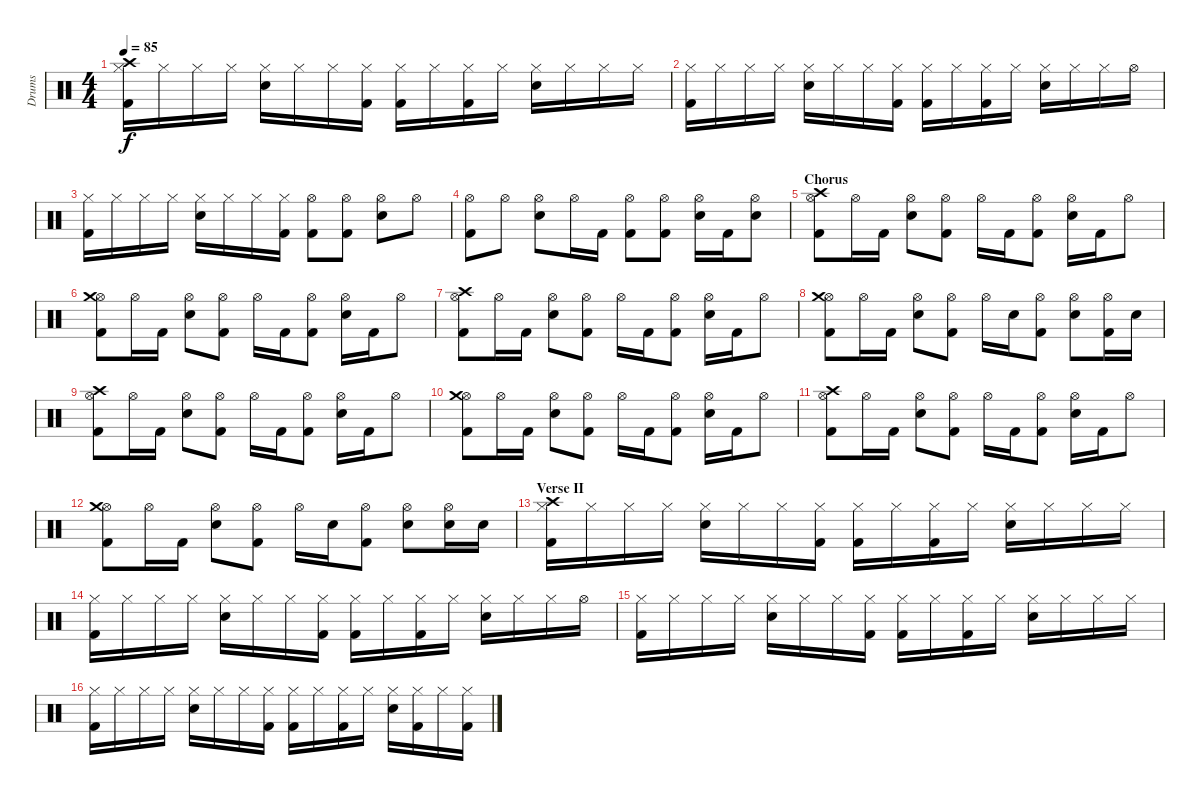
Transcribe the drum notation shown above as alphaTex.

\track ("Drums" "Drums") {instrument percussion}
\staff {score}
\articulation defaults
\ts (4 4)
\tempo 85
\clef neutral
\ks c
("Hi-Hat (closed)" "Kick (hit) 2" "Crash high (hit)").16{dy f} "Hi-Hat (closed)".16 "Hi-Hat (closed)".16 "Hi-Hat (closed)".16 ("Hi-Hat (closed)" "Electric Snare (hit)").16 "Hi-Hat (closed)".16 "Hi-Hat (closed)".16 ("Hi-Hat (closed)" "Kick (hit) 2").16 ("Hi-Hat (closed)" "Kick (hit) 2").16 "Hi-Hat (closed)".16 ("Hi-Hat (closed)" "Kick (hit) 2").16 "Hi-Hat (closed)".16 ("Hi-Hat (closed)" "Electric Snare (hit)").16 "Hi-Hat (closed)".16 "Hi-Hat (closed)".16 "Hi-Hat (closed)".16 |
("Hi-Hat (closed)" "Kick (hit) 2").16 "Hi-Hat (closed)".16 "Hi-Hat (closed)".16 "Hi-Hat (closed)".16 ("Hi-Hat (closed)" "Electric Snare (hit)").16 "Hi-Hat (closed)".16 "Hi-Hat (closed)".16 ("Hi-Hat (closed)" "Kick (hit) 2").16 ("Hi-Hat (closed)" "Kick (hit) 2").16 "Hi-Hat (closed)".16 ("Hi-Hat (closed)" "Kick (hit) 2").16 "Hi-Hat (closed)".16 ("Hi-Hat (closed)" "Electric Snare (hit)").16 "Hi-Hat (closed)".16 "Hi-Hat (closed)".16 "Hi-Hat (open)".16 |
("Hi-Hat (closed)" "Kick (hit) 2").16 "Hi-Hat (closed)".16 "Hi-Hat (closed)".16 "Hi-Hat (closed)".16 ("Hi-Hat (closed)" "Electric Snare (hit)").16 "Hi-Hat (closed)".16 "Hi-Hat (closed)".16 ("Hi-Hat (closed)" "Kick (hit) 2").16 ("Hi-Hat (open)" "Kick (hit) 2").8 ("Hi-Hat (open)" "Kick (hit) 2").8 ("Hi-Hat (open)" "Electric Snare (hit)").8 "Hi-Hat (open)".8 |
("Hi-Hat (open)" "Kick (hit) 2").8 "Hi-Hat (open)".8 ("Hi-Hat (open)" "Electric Snare (hit)").8 "Hi-Hat (open)".16 "Kick (hit) 2".16 ("Hi-Hat (open)" "Kick (hit) 2").8 ("Hi-Hat (open)" "Kick (hit) 2").8 ("Hi-Hat (open)" "Electric Snare (hit)").16 "Kick (hit) 2".16 ("Hi-Hat (open)" "Electric Snare (hit)").8 |
\section ("" "Chorus")
("Hi-Hat (open)" "Kick (hit) 2" "Crash high (hit)").8 "Hi-Hat (open)".16 "Kick (hit) 2".16 ("Hi-Hat (open)" "Electric Snare (hit)").8 ("Hi-Hat (open)" "Kick (hit) 2").8 "Hi-Hat (open)".16 "Kick (hit) 2".16 ("Hi-Hat (open)" "Kick (hit) 2").8 ("Hi-Hat (open)" "Electric Snare (hit)").16 "Kick (hit) 2".16 "Hi-Hat (open)".8 |
("Hi-Hat (open)" "Kick (hit) 2" "Crash medium (hit)").8 "Hi-Hat (open)".16 "Kick (hit) 2".16 ("Hi-Hat (open)" "Electric Snare (hit)").8 ("Hi-Hat (open)" "Kick (hit) 2").8 "Hi-Hat (open)".16 "Kick (hit) 2".16 ("Hi-Hat (open)" "Kick (hit) 2").8 ("Hi-Hat (open)" "Electric Snare (hit)").16 "Kick (hit) 2".16 "Hi-Hat (open)".8 |
("Hi-Hat (open)" "Kick (hit) 2" "Crash high (hit)").8 "Hi-Hat (open)".16 "Kick (hit) 2".16 ("Hi-Hat (open)" "Electric Snare (hit)").8 ("Hi-Hat (open)" "Kick (hit) 2").8 "Hi-Hat (open)".16 "Kick (hit) 2".16 ("Hi-Hat (open)" "Kick (hit) 2").8 ("Hi-Hat (open)" "Electric Snare (hit)").16 "Kick (hit) 2".16 "Hi-Hat (open)".8 |
("Hi-Hat (open)" "Kick (hit) 2" "Crash medium (hit)").8 "Hi-Hat (open)".16 "Kick (hit) 2".16 ("Hi-Hat (open)" "Electric Snare (hit)").8 ("Hi-Hat (open)" "Kick (hit) 2").8 "Hi-Hat (open)".16 "Electric Snare (hit)".16 ("Hi-Hat (open)" "Kick (hit) 2").8 ("Hi-Hat (open)" "Electric Snare (hit)").8 ("Hi-Hat (open)" "Kick (hit) 2").16 "Electric Snare (hit)".16 |
("Hi-Hat (open)" "Kick (hit) 2" "Crash high (hit)").8 "Hi-Hat (open)".16 "Kick (hit) 2".16 ("Hi-Hat (open)" "Electric Snare (hit)").8 ("Hi-Hat (open)" "Kick (hit) 2").8 "Hi-Hat (open)".16 "Kick (hit) 2".16 ("Hi-Hat (open)" "Kick (hit) 2").8 ("Hi-Hat (open)" "Electric Snare (hit)").16 "Kick (hit) 2".16 "Hi-Hat (open)".8 |
("Hi-Hat (open)" "Kick (hit) 2" "Crash medium (hit)").8 "Hi-Hat (open)".16 "Kick (hit) 2".16 ("Hi-Hat (open)" "Electric Snare (hit)").8 ("Hi-Hat (open)" "Kick (hit) 2").8 "Hi-Hat (open)".16 "Kick (hit) 2".16 ("Hi-Hat (open)" "Kick (hit) 2").8 ("Hi-Hat (open)" "Electric Snare (hit)").16 "Kick (hit) 2".16 "Hi-Hat (open)".8 |
("Hi-Hat (open)" "Kick (hit) 2" "Crash high (hit)").8 "Hi-Hat (open)".16 "Kick (hit) 2".16 ("Hi-Hat (open)" "Electric Snare (hit)").8 ("Hi-Hat (open)" "Kick (hit) 2").8 "Hi-Hat (open)".16 "Kick (hit) 2".16 ("Hi-Hat (open)" "Kick (hit) 2").8 ("Hi-Hat (open)" "Electric Snare (hit)").16 "Kick (hit) 2".16 "Hi-Hat (open)".8 |
("Hi-Hat (open)" "Kick (hit) 2" "Crash medium (hit)").8 "Hi-Hat (open)".16 "Kick (hit) 2".16 ("Hi-Hat (open)" "Electric Snare (hit)").8 ("Hi-Hat (open)" "Kick (hit) 2").8 "Hi-Hat (open)".16 "Electric Snare (hit)".16 ("Hi-Hat (open)" "Kick (hit) 2").8 ("Hi-Hat (open)" "Electric Snare (hit)").8 ("Hi-Hat (open)" "Electric Snare (hit)").16 "Electric Snare (hit)".16 |
\section ("" "Verse II")
("Hi-Hat (closed)" "Kick (hit) 2" "Crash high (hit)").16 "Hi-Hat (closed)".16 "Hi-Hat (closed)".16 "Hi-Hat (closed)".16 ("Hi-Hat (closed)" "Electric Snare (hit)").16 "Hi-Hat (closed)".16 "Hi-Hat (closed)".16 ("Hi-Hat (closed)" "Kick (hit) 2").16 ("Hi-Hat (closed)" "Kick (hit) 2").16 "Hi-Hat (closed)".16 ("Hi-Hat (closed)" "Kick (hit) 2").16 "Hi-Hat (closed)".16 ("Hi-Hat (closed)" "Electric Snare (hit)").16 "Hi-Hat (closed)".16 "Hi-Hat (closed)".16 "Hi-Hat (closed)".16 |
("Hi-Hat (closed)" "Kick (hit) 2").16 "Hi-Hat (closed)".16 "Hi-Hat (closed)".16 "Hi-Hat (closed)".16 ("Hi-Hat (closed)" "Electric Snare (hit)").16 "Hi-Hat (closed)".16 "Hi-Hat (closed)".16 ("Hi-Hat (closed)" "Kick (hit) 2").16 ("Hi-Hat (closed)" "Kick (hit) 2").16 "Hi-Hat (closed)".16 ("Hi-Hat (closed)" "Kick (hit) 2").16 "Hi-Hat (closed)".16 ("Hi-Hat (closed)" "Electric Snare (hit)").16 "Hi-Hat (closed)".16 "Hi-Hat (closed)".16 "Hi-Hat (open)".16 |
("Hi-Hat (closed)" "Kick (hit) 2").16 "Hi-Hat (closed)".16 "Hi-Hat (closed)".16 "Hi-Hat (closed)".16 ("Hi-Hat (closed)" "Electric Snare (hit)").16 "Hi-Hat (closed)".16 "Hi-Hat (closed)".16 ("Hi-Hat (closed)" "Kick (hit) 2").16 ("Hi-Hat (closed)" "Kick (hit) 2").16 "Hi-Hat (closed)".16 ("Hi-Hat (closed)" "Kick (hit) 2").16 "Hi-Hat (closed)".16 ("Hi-Hat (closed)" "Electric Snare (hit)").16 "Hi-Hat (closed)".16 "Hi-Hat (closed)".16 "Hi-Hat (closed)".16 |
("Hi-Hat (closed)" "Kick (hit) 2").16 "Hi-Hat (closed)".16 "Hi-Hat (closed)".16 "Hi-Hat (closed)".16 ("Hi-Hat (closed)" "Electric Snare (hit)").16 "Hi-Hat (closed)".16 "Hi-Hat (closed)".16 ("Hi-Hat (closed)" "Kick (hit) 2").16 ("Hi-Hat (closed)" "Kick (hit) 2").16 "Hi-Hat (closed)".16 ("Hi-Hat (closed)" "Kick (hit) 2").16 "Hi-Hat (closed)".16 ("Hi-Hat (closed)" "Electric Snare (hit)").16 ("Hi-Hat (closed)" "Kick (hit) 2").16 "Hi-Hat (closed)".16 ("Hi-Hat (closed)" "Kick (hit) 2").16
